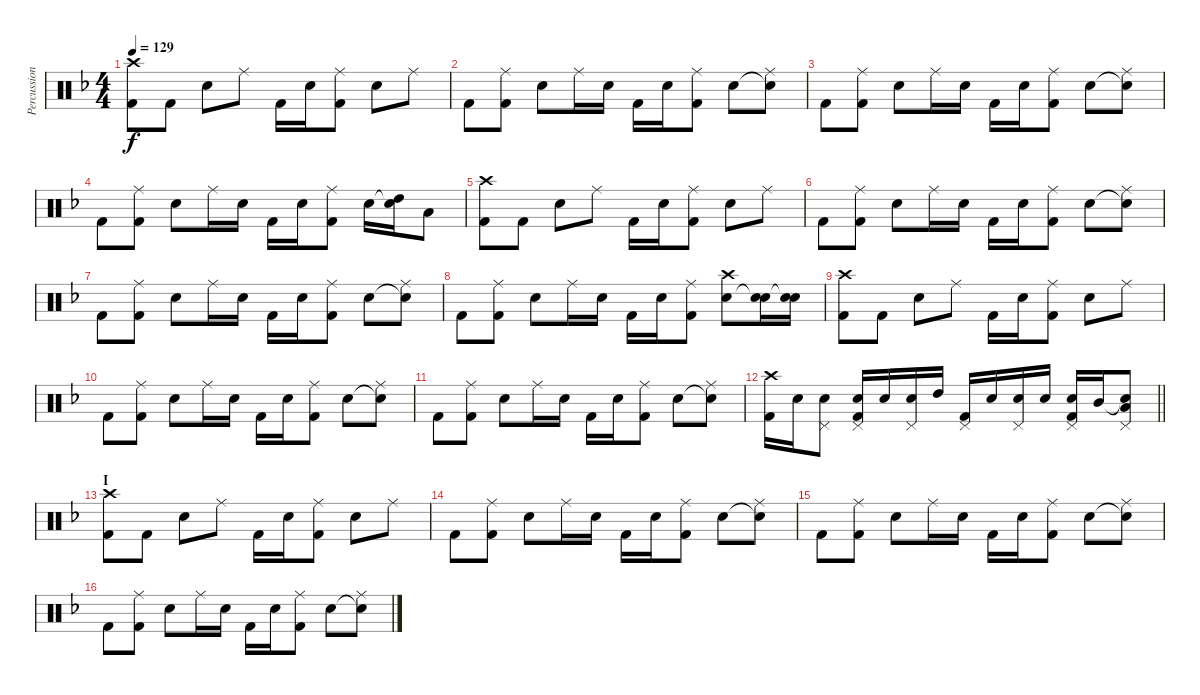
\track ("Percussion" "Percussion") {instrument percussion}
\staff {score}
\articulation defaults
\ts (4 4)
\tempo 129
\clef neutral
\ks f
("Crash high (hit)" "Kick (hit) 2").8{dy f} "Kick (hit) 2".8 "Electric Snare (hit)".8 "Ride (middle)".8 "Kick (hit) 2".16 "Electric Snare (hit)".16 ("Ride (middle)" "Kick (hit) 2").8 "Electric Snare (hit)".8 "Ride (middle)".8 |
"Kick (hit) 2".8 ("Ride (middle)" "Kick (hit) 2").8 "Electric Snare (hit)".8 "Ride (middle)".16 "Electric Snare (hit)".16 "Kick (hit) 2".16 "Electric Snare (hit)".16 ("Ride (middle)" "Kick (hit) 2").8 "Electric Snare (hit)".8 ("Snare (hit)"{t} "Ride (middle)").8 |
"Kick (hit) 2".8 ("Ride (middle)" "Kick (hit) 2").8 "Electric Snare (hit)".8 "Ride (middle)".16 "Electric Snare (hit)".16 "Kick (hit) 2".16 "Electric Snare (hit)".16 ("Ride (middle)" "Kick (hit) 2").8 "Electric Snare (hit)".8 ("Snare (hit)"{t} "Ride (middle)").8 |
"Kick (hit) 2".8 ("Ride (middle)" "Kick (hit) 2").8 "Electric Snare (hit)".8 "Ride (middle)".16 "Electric Snare (hit)".16 "Kick (hit) 2".16 "Electric Snare (hit)".16 ("Ride (middle)" "Kick (hit) 2").8 "Electric Snare (hit)".16 ("Snare (hit)"{t} "High Tom (hit)").16 "Low Tom (hit)".8 |
("Crash high (hit)" "Kick (hit) 2").8 "Kick (hit) 2".8 "Electric Snare (hit)".8 "Ride (middle)".8 "Kick (hit) 2".16 "Electric Snare (hit)".16 ("Ride (middle)" "Kick (hit) 2").8 "Electric Snare (hit)".8 "Ride (middle)".8 |
"Kick (hit) 2".8 ("Ride (middle)" "Kick (hit) 2").8 "Electric Snare (hit)".8 "Ride (middle)".16 "Electric Snare (hit)".16 "Kick (hit) 2".16 "Electric Snare (hit)".16 ("Ride (middle)" "Kick (hit) 2").8 "Electric Snare (hit)".8 ("Snare (hit)"{t} "Ride (middle)").8 |
"Kick (hit) 2".8 ("Ride (middle)" "Kick (hit) 2").8 "Electric Snare (hit)".8 "Ride (middle)".16 "Electric Snare (hit)".16 "Kick (hit) 2".16 "Electric Snare (hit)".16 ("Ride (middle)" "Kick (hit) 2").8 "Electric Snare (hit)".8 ("Snare (hit)"{t} "Ride (middle)").8 |
"Kick (hit) 2".8 ("Ride (middle)" "Kick (hit) 2").8 "Electric Snare (hit)".8 "Ride (middle)".16 "Electric Snare (hit)".16 "Kick (hit) 2".16 "Electric Snare (hit)".16 ("Ride (middle)" "Kick (hit) 2").8 ("Electric Snare (hit)" "Crash high (hit)").8 ("Snare (hit)"{t} "Electric Snare (hit)").16 ("Electric Snare (hit)" "Snare (hit)"{t}).16 |
("Crash high (hit)" "Kick (hit) 2").8 "Kick (hit) 2".8 "Electric Snare (hit)".8 "Ride (middle)".8 "Kick (hit) 2".16 "Electric Snare (hit)".16 ("Ride (middle)" "Kick (hit) 2").8 "Electric Snare (hit)".8 "Ride (middle)".8 |
"Kick (hit) 2".8 ("Ride (middle)" "Kick (hit) 2").8 "Electric Snare (hit)".8 "Ride (middle)".16 "Electric Snare (hit)".16 "Kick (hit) 2".16 "Electric Snare (hit)".16 ("Ride (middle)" "Kick (hit) 2").8 "Electric Snare (hit)".8 ("Snare (hit)"{t} "Ride (middle)").8 |
"Kick (hit) 2".8 ("Ride (middle)" "Kick (hit) 2").8 "Electric Snare (hit)".8 "Ride (middle)".16 "Electric Snare (hit)".16 "Kick (hit) 2".16 "Electric Snare (hit)".16 ("Ride (middle)" "Kick (hit) 2").8 "Electric Snare (hit)".8 ("Snare (hit)"{t} "Ride (middle)").8 |
\barLineRight lightlight
("Crash high (hit)" "Kick (hit) 2").16 "Electric Snare (hit)".16 ("Electric Snare (hit)" "Pedal Hi-Hat (hit)").8 ("Electric Snare (hit)" "Kick (hit) 2" "Pedal Hi-Hat (hit)").16 "Electric Snare (hit)".16 ("Electric Snare (hit)" "Pedal Hi-Hat (hit)").16 "High Tom (hit)".16 ("Pedal Hi-Hat (hit)" "Kick (hit) 2").16 "Electric Snare (hit)".16 ("Electric Snare (hit)" "Pedal Hi-Hat (hit)").16 "Electric Snare (hit)".16 ("Electric Snare (hit)" "Pedal Hi-Hat (hit)" "Kick (hit) 2").16 "Mid Tom (hit)".16 ("Snare (hit)"{t} "Low Tom (hit)" "Pedal Hi-Hat (hit)").8 |
\section ("" "I")
("Crash high (hit)" "Kick (hit) 2").8 "Kick (hit) 2".8 "Electric Snare (hit)".8 "Ride (middle)".8 "Kick (hit) 2".16 "Electric Snare (hit)".16 ("Ride (middle)" "Kick (hit) 2").8 "Electric Snare (hit)".8 "Ride (middle)".8 |
"Kick (hit) 2".8 ("Ride (middle)" "Kick (hit) 2").8 "Electric Snare (hit)".8 "Ride (middle)".16 "Electric Snare (hit)".16 "Kick (hit) 2".16 "Electric Snare (hit)".16 ("Ride (middle)" "Kick (hit) 2").8 "Electric Snare (hit)".8 ("Snare (hit)"{t} "Ride (middle)").8 |
"Kick (hit) 2".8 ("Ride (middle)" "Kick (hit) 2").8 "Electric Snare (hit)".8 "Ride (middle)".16 "Electric Snare (hit)".16 "Kick (hit) 2".16 "Electric Snare (hit)".16 ("Ride (middle)" "Kick (hit) 2").8 "Electric Snare (hit)".8 ("Snare (hit)"{t} "Ride (middle)").8 |
"Kick (hit) 2".8 ("Ride (middle)" "Kick (hit) 2").8 "Electric Snare (hit)".8 "Ride (middle)".16 "Electric Snare (hit)".16 "Kick (hit) 2".16 "Electric Snare (hit)".16 ("Ride (middle)" "Kick (hit) 2").8 "Electric Snare (hit)".8 ("Snare (hit)"{t} "Ride (middle)").8
